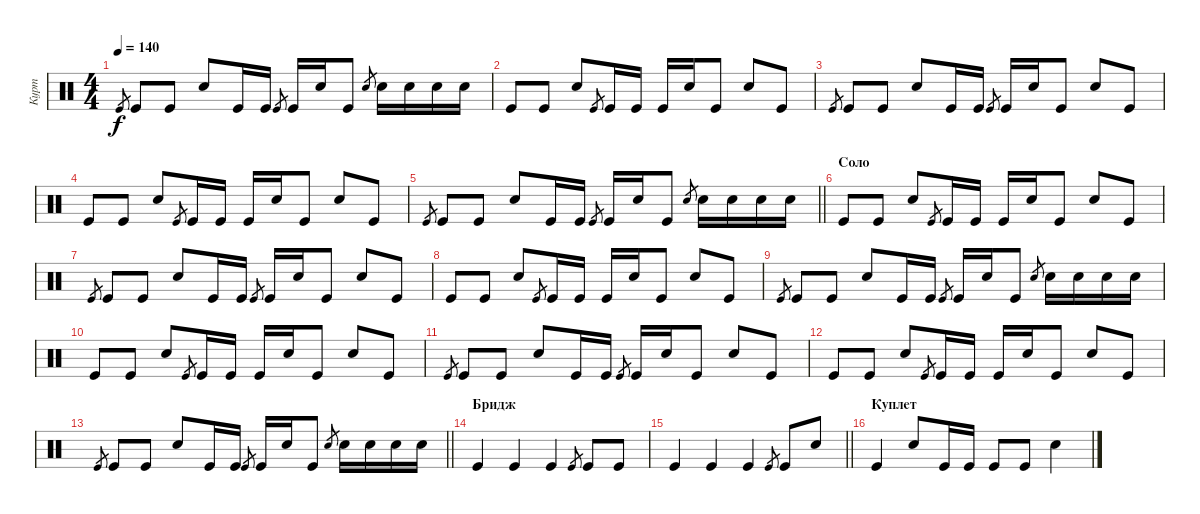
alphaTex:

\track ("Курт" "Курт") {instrument percussion}
\staff {score}
\articulation defaults
\ts (4 4)
\tempo 140
\clef neutral
\ks c "Kick (hit)".8{gr dy f} "Kick (hit)".8 "Kick (hit)".8 "Snare (hit) 2".8 "Kick (hit)".16 "Kick (hit)".16 "Kick (hit)".8{gr} "Kick (hit)".16 "Snare (hit) 2".16 "Kick (hit)".8 "Snare (hit) 2".8{gr} "Snare (hit) 2".16 "Snare (hit) 2".16 "Snare (hit) 2".16 "Snare (hit) 2".16
|
"Kick (hit)".8 "Kick (hit)".8 "Snare (hit) 2".8 "Kick (hit)".8{gr} "Kick (hit)".16 "Kick (hit)".16 "Kick (hit)".16 "Snare (hit) 2".16 "Kick (hit)".8 "Snare (hit) 2".8 "Kick (hit)".8 |
"Kick (hit)".8{gr} "Kick (hit)".8 "Kick (hit)".8 "Snare (hit) 2".8 "Kick (hit)".16 "Kick (hit)".16 "Kick (hit)".8{gr} "Kick (hit)".16 "Snare (hit) 2".16 "Kick (hit)".8 "Snare (hit) 2".8 "Kick (hit)".8 |
"Kick (hit)".8 "Kick (hit)".8 "Snare (hit) 2".8 "Kick (hit)".8{gr} "Kick (hit)".16 "Kick (hit)".16 "Kick (hit)".16 "Snare (hit) 2".16 "Kick (hit)".8 "Snare (hit) 2".8 "Kick (hit)".8 |
\barLineRight lightlight "Kick (hit)".8{gr} "Kick (hit)".8 "Kick (hit)".8 "Snare (hit) 2".8 "Kick (hit)".16 "Kick (hit)".16 "Kick (hit)".8{gr} "Kick (hit)".16 "Snare (hit) 2".16 "Kick (hit)".8 "Snare (hit) 2".8{gr} "Snare (hit) 2".16 "Snare (hit) 2".16 "Snare (hit) 2".16 "Snare (hit) 2".16
|
\section ("" "Соло")
"Kick (hit)".8 "Kick (hit)".8 "Snare (hit) 2".8 "Kick (hit)".8{gr} "Kick (hit)".16 "Kick (hit)".16 "Kick (hit)".16 "Snare (hit) 2".16 "Kick (hit)".8 "Snare (hit) 2".8 "Kick (hit)".8 |
"Kick (hit)".8{gr} "Kick (hit)".8 "Kick (hit)".8 "Snare (hit) 2".8 "Kick (hit)".16 "Kick (hit)".16 "Kick (hit)".8{gr} "Kick (hit)".16 "Snare (hit) 2".16 "Kick (hit)".8 "Snare (hit) 2".8 "Kick (hit)".8 |
"Kick (hit)".8 "Kick (hit)".8 "Snare (hit) 2".8 "Kick (hit)".8{gr} "Kick (hit)".16 "Kick (hit)".16 "Kick (hit)".16 "Snare (hit) 2".16 "Kick (hit)".8 "Snare (hit) 2".8 "Kick (hit)".8 |
"Kick (hit)".8{gr} "Kick (hit)".8 "Kick (hit)".8 "Snare (hit) 2".8 "Kick (hit)".16 "Kick (hit)".16 "Kick (hit)".8{gr} "Kick (hit)".16 "Snare (hit) 2".16 "Kick (hit)".8 "Snare (hit) 2".8{gr} "Snare (hit) 2".16 "Snare (hit) 2".16 "Snare (hit) 2".16 "Snare (hit) 2".16 |
"Kick (hit)".8 "Kick (hit)".8 "Snare (hit) 2".8 "Kick (hit)".8{gr} "Kick (hit)".16 "Kick (hit)".16 "Kick (hit)".16 "Snare (hit) 2".16 "Kick (hit)".8 "Snare (hit) 2".8 "Kick (hit)".8 |
"Kick (hit)".8{gr} "Kick (hit)".8 "Kick (hit)".8 "Snare (hit) 2".8 "Kick (hit)".16 "Kick (hit)".16 "Kick (hit)".8{gr} "Kick (hit)".16 "Snare (hit) 2".16 "Kick (hit)".8 "Snare (hit) 2".8 "Kick (hit)".8 |
"Kick (hit)".8 "Kick (hit)".8 "Snare (hit) 2".8 "Kick (hit)".8{gr} "Kick (hit)".16 "Kick (hit)".16 "Kick (hit)".16 "Snare (hit) 2".16 "Kick (hit)".8 "Snare (hit) 2".8 "Kick (hit)".8 |
\barLineRight lightlight "Kick (hit)".8{gr} "Kick (hit)".8 "Kick (hit)".8 "Snare (hit) 2".8 "Kick (hit)".16 "Kick (hit)".16 "Kick (hit)".8{gr} "Kick (hit)".16 "Snare (hit) 2".16 "Kick (hit)".8 "Snare (hit) 2".8{gr} "Snare (hit) 2".16 "Snare (hit) 2".16 "Snare (hit) 2".16 "Snare (hit) 2".16
|
\section ("" "Бридж")
"Kick (hit)".4 "Kick (hit)".4 "Kick (hit)".4 "Kick (hit)".8{gr} "Kick (hit)".8 "Kick (hit)".8 |
\barLineRight lightlight "Kick (hit)".4 "Kick (hit)".4 "Kick (hit)".4 "Kick (hit)".8{gr} "Kick (hit)".8 "Snare (hit) 2".8
|
\section ("" "Куплет")
"Kick (hit)".4 "Snare (hit) 2".8 "Kick (hit)".16 "Kick (hit)".16 "Kick (hit)".8 "Kick (hit)".8 "Snare (hit) 2".4
